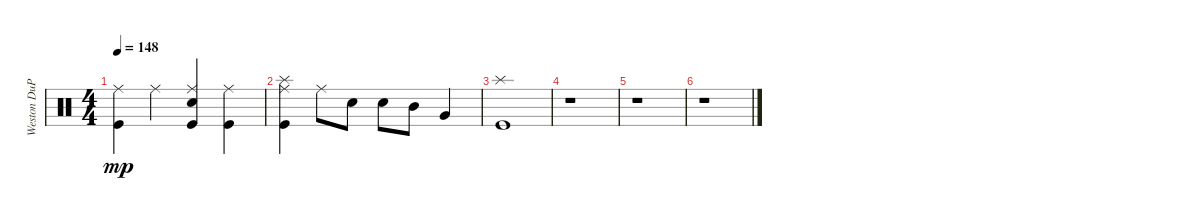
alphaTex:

\track ("Weston DuPree" "Weston DuP") {instrument percussion}
\staff {score}
\articulation defaults
\ts (4 4)
\tempo 148
\clef neutral
\ks c
("Kick (hit)" "Ride (middle)").4{dy mp} "Ride (middle)".4 ("Electric Snare (hit)" "Kick (hit)" "Ride (middle)").4 ("Ride (middle)" "Kick (hit)").4 |
("Splash (hit)" "Kick (hit)" "Ride (middle)").4 "Ride (middle)".8 "Electric Snare (hit)".8 "Electric Snare (hit)".8 "Mid Tom (hit)".8 "Very Low Tom (hit)".4 |
("Splash (hit)" "Kick (hit)").1 |
r.1 |
r.1 |
r.1
